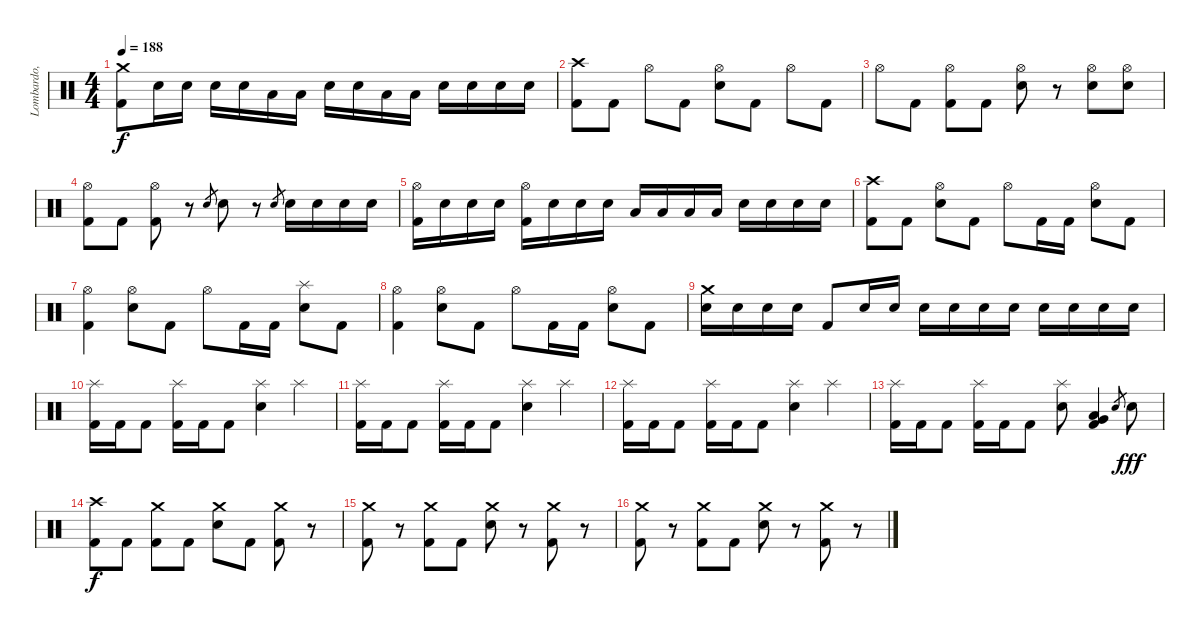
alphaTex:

\track ("Lombardo, Dave" "Lombardo, ") {instrument percussion}
\staff {score}
\articulation defaults
\ts (4 4)
\tempo 188
\clef neutral
\ks c
("Crash medium (hit)" "Kick (hit) 2").8{dy f} "Electric Snare (hit)".16 "Electric Snare (hit)".16 "Electric Snare (hit)".16 "Electric Snare (hit)".16 "Low Tom (hit)".16 "Low Tom (hit)".16 "Electric Snare (hit)".16 "Electric Snare (hit)".16 "Low Tom (hit)".16 "Low Tom (hit)".16 "Electric Snare (hit)".16 "Electric Snare (hit)".16 "Electric Snare (hit)".16 "Electric Snare (hit)".16 |
("Crash high (hit)" "Kick (hit) 2").8 "Kick (hit) 2".8 "Hi-Hat (open)".8 "Kick (hit) 2".8 ("Electric Snare (hit)" "Hi-Hat (open)").8 "Kick (hit) 2".8 "Hi-Hat (open)".8 "Kick (hit) 2".8 |
"Hi-Hat (open)".8 "Kick (hit) 2".8 ("Kick (hit) 2" "Hi-Hat (open)").8 "Kick (hit) 2".8 ("Electric Snare (hit)" "Hi-Hat (open)").8 r.8 ("Electric Snare (hit)" "Hi-Hat (open)").8 ("Electric Snare (hit)" "Hi-Hat (open)").8 |
("Kick (hit) 2" "Hi-Hat (open)").8 "Kick (hit) 2".8 ("Kick (hit) 2" "Hi-Hat (open)").8 r.8 "Electric Snare (hit)".8{gr} "Electric Snare (hit)".8 r.8 "Electric Snare (hit)".8{gr} "Electric Snare (hit)".16 "Electric Snare (hit)".16 "Electric Snare (hit)".16 "Electric Snare (hit)".16 |
("Hi-Hat (open)" "Kick (hit) 2").16 "Electric Snare (hit)".16 "Electric Snare (hit)".16 "Electric Snare (hit)".16 ("Hi-Hat (open)" "Kick (hit) 2").16 "Electric Snare (hit)".16 "Electric Snare (hit)".16 "Electric Snare (hit)".16 "Low Tom (hit)".16 "Low Tom (hit)".16 "Low Tom (hit)".16 "Low Tom (hit)".16 "Electric Snare (hit)".16 "Electric Snare (hit)".16 "Electric Snare (hit)".16 "Electric Snare (hit)".16 |
("Crash high (hit)" "Kick (hit) 2").8 "Kick (hit) 2".8 ("Electric Snare (hit)" "Hi-Hat (open)").8 "Kick (hit) 2".8 "Hi-Hat (open)".8 "Kick (hit) 2".16 "Kick (hit) 2".16 ("Electric Snare (hit)" "Hi-Hat (open)").8 "Kick (hit) 2".8 |
("Hi-Hat (open)" "Kick (hit) 2").4 ("Electric Snare (hit)" "Hi-Hat (open)").8 "Kick (hit) 2".8 "Hi-Hat (open)".8 "Kick (hit) 2".16 "Kick (hit) 2".16 ("Electric Snare (hit)" "Splash (hit)").8 "Kick (hit) 2".8 |
("Hi-Hat (open)" "Kick (hit) 2").4 ("Electric Snare (hit)" "Hi-Hat (open)").8 "Kick (hit) 2".8 "Hi-Hat (open)".8 "Kick (hit) 2".16 "Kick (hit) 2".16 ("Electric Snare (hit)" "Hi-Hat (open)").8 "Kick (hit) 2".8 |
("Crash medium (hit)" "Electric Snare (hit)").16 "Electric Snare (hit)".16 "Electric Snare (hit)".16 "Electric Snare (hit)".16 "Kick (hit) 2".8 "Electric Snare (hit)".16 "Electric Snare (hit)".16 "Electric Snare (hit)".16 "Electric Snare (hit)".16 "Electric Snare (hit)".16 "Electric Snare (hit)".16 "Electric Snare (hit)".16 "Electric Snare (hit)".16 "Electric Snare (hit)".16 "Electric Snare (hit)".16 |
("Kick (hit) 2" "Splash (hit)").16 "Kick (hit) 2".16 "Kick (hit) 2".8 ("Kick (hit) 2" "Splash (hit)").16 "Kick (hit) 2".16 "Kick (hit) 2".8 ("Electric Snare (hit)" "Splash (hit)").4 "Splash (hit)".4 |
("Kick (hit) 2" "Splash (hit)").16 "Kick (hit) 2".16 "Kick (hit) 2".8 ("Kick (hit) 2" "Splash (hit)").16 "Kick (hit) 2".16 "Kick (hit) 2".8 ("Electric Snare (hit)" "Splash (hit)").4 "Splash (hit)".4 |
("Kick (hit) 2" "Splash (hit)").16 "Kick (hit) 2".16 "Kick (hit) 2".8 ("Kick (hit) 2" "Splash (hit)").16 "Kick (hit) 2".16 "Kick (hit) 2".8 ("Electric Snare (hit)" "Splash (hit)").4 "Splash (hit)".4 |
("Kick (hit) 2" "Splash (hit)").16 "Kick (hit) 2".16 "Kick (hit) 2".8 ("Kick (hit) 2" "Splash (hit)").16 "Kick (hit) 2".16 "Kick (hit) 2".8 ("Electric Snare (hit)" "Splash (hit)").8 ("Very Low Tom (hit)" "Low Floor Tom (hit)" "Kick (hit) 2").4 "Electric Snare (hit)".8{gr} "Electric Snare (hit)".8{dy fff} |
("Crash high (hit)" "Kick (hit) 2").8{dy f} "Kick (hit) 2".8 ("Kick (hit) 2" "Crash medium (hit)").8 "Kick (hit) 2".8 ("Electric Snare (hit)" "Crash medium (hit)").8 "Kick (hit) 2".8 ("Kick (hit) 2" "Crash medium (hit)").8 r.8 |
("Kick (hit) 2" "Crash medium (hit)").8 r.8 ("Kick (hit) 2" "Crash medium (hit)").8 "Kick (hit) 2".8 ("Electric Snare (hit)" "Crash medium (hit)").8 r.8 ("Kick (hit) 2" "Crash medium (hit)").8 r.8 |
("Kick (hit) 2" "Crash medium (hit)").8 r.8 ("Kick (hit) 2" "Crash medium (hit)").8 "Kick (hit) 2".8 ("Electric Snare (hit)" "Crash medium (hit)").8 r.8 ("Kick (hit) 2" "Crash medium (hit)").8 r.8
